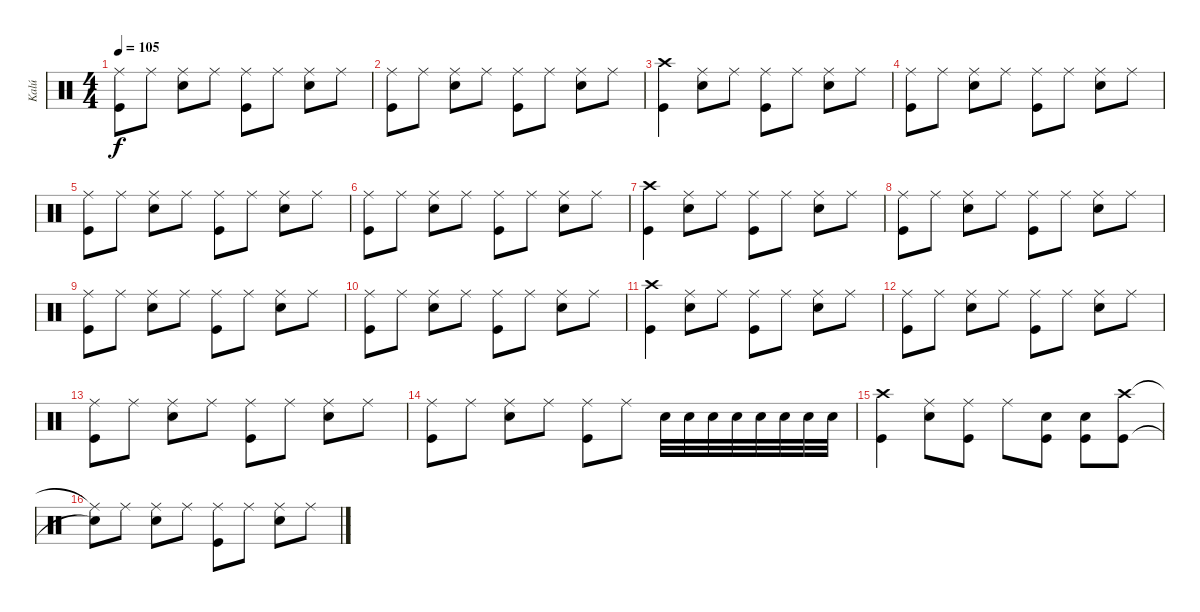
\track ("Kalú" "Kalú") {instrument percussion}
\staff {score}
\articulation defaults
\ts (4 4)
\tempo 105
\clef neutral
\ks c
("Ride (middle)" "Kick (hit)").8{dy f} "Ride (middle)".8 ("Ride (middle)" "Electric Snare (hit)").8 "Ride (middle)".8 ("Ride (middle)" "Kick (hit)").8 "Ride (middle)".8 ("Ride (middle)" "Electric Snare (hit)").8 "Ride (middle)".8 |
("Ride (middle)" "Kick (hit)").8 "Ride (middle)".8 ("Ride (middle)" "Electric Snare (hit)").8 "Ride (middle)".8 ("Ride (middle)" "Kick (hit)").8 "Ride (middle)".8 ("Ride (middle)" "Electric Snare (hit)").8 "Ride (middle)".8 |
("Crash high (hit)" "Kick (hit)").4 ("Ride (middle)" "Electric Snare (hit)").8 "Ride (middle)".8 ("Ride (middle)" "Kick (hit)").8 "Ride (middle)".8 ("Ride (middle)" "Electric Snare (hit)").8 "Ride (middle)".8 |
("Ride (middle)" "Kick (hit)").8 "Ride (middle)".8 ("Ride (middle)" "Electric Snare (hit)").8 "Ride (middle)".8 ("Ride (middle)" "Kick (hit)").8 "Ride (middle)".8 ("Ride (middle)" "Electric Snare (hit)").8 "Ride (middle)".8 |
("Ride (middle)" "Kick (hit)").8 "Ride (middle)".8 ("Ride (middle)" "Electric Snare (hit)").8 "Ride (middle)".8 ("Ride (middle)" "Kick (hit)").8 "Ride (middle)".8 ("Ride (middle)" "Electric Snare (hit)").8 "Ride (middle)".8 |
("Ride (middle)" "Kick (hit)").8 "Ride (middle)".8 ("Ride (middle)" "Electric Snare (hit)").8 "Ride (middle)".8 ("Ride (middle)" "Kick (hit)").8 "Ride (middle)".8 ("Ride (middle)" "Electric Snare (hit)").8 "Ride (middle)".8 |
("Crash high (hit)" "Kick (hit)").4 ("Ride (middle)" "Electric Snare (hit)").8 "Ride (middle)".8 ("Ride (middle)" "Kick (hit)").8 "Ride (middle)".8 ("Ride (middle)" "Electric Snare (hit)").8 "Ride (middle)".8 |
("Ride (middle)" "Kick (hit)").8 "Ride (middle)".8 ("Ride (middle)" "Electric Snare (hit)").8 "Ride (middle)".8 ("Ride (middle)" "Kick (hit)").8 "Ride (middle)".8 ("Ride (middle)" "Electric Snare (hit)").8 "Ride (middle)".8 |
("Ride (middle)" "Kick (hit)").8 "Ride (middle)".8 ("Ride (middle)" "Electric Snare (hit)").8 "Ride (middle)".8 ("Ride (middle)" "Kick (hit)").8 "Ride (middle)".8 ("Ride (middle)" "Electric Snare (hit)").8 "Ride (middle)".8 |
("Ride (middle)" "Kick (hit)").8 "Ride (middle)".8 ("Ride (middle)" "Electric Snare (hit)").8 "Ride (middle)".8 ("Ride (middle)" "Kick (hit)").8 "Ride (middle)".8 ("Ride (middle)" "Electric Snare (hit)").8 "Ride (middle)".8 |
("Crash high (hit)" "Kick (hit)").4 ("Ride (middle)" "Electric Snare (hit)").8 "Ride (middle)".8 ("Ride (middle)" "Kick (hit)").8 "Ride (middle)".8 ("Ride (middle)" "Electric Snare (hit)").8 "Ride (middle)".8 |
("Ride (middle)" "Kick (hit)").8 "Ride (middle)".8 ("Ride (middle)" "Electric Snare (hit)").8 "Ride (middle)".8 ("Ride (middle)" "Kick (hit)").8 "Ride (middle)".8 ("Ride (middle)" "Electric Snare (hit)").8 "Ride (middle)".8 |
("Ride (middle)" "Kick (hit)").8 "Ride (middle)".8 ("Ride (middle)" "Electric Snare (hit)").8 "Ride (middle)".8 ("Ride (middle)" "Kick (hit)").8 "Ride (middle)".8 ("Ride (middle)" "Electric Snare (hit)").8 "Ride (middle)".8 |
("Ride (middle)" "Kick (hit)").8 "Ride (middle)".8 ("Ride (middle)" "Electric Snare (hit)").8 "Ride (middle)".8 ("Ride (middle)" "Kick (hit)").8 "Ride (middle)".8 "Electric Snare (hit)".32 "Electric Snare (hit)".32 "Electric Snare (hit)".32 "Electric Snare (hit)".32 "Electric Snare (hit)".32 "Electric Snare (hit)".32 "Electric Snare (hit)".32 "Electric Snare (hit)".32 |
("Crash high (hit)" "Kick (hit)").4 ("Ride (middle)" "Electric Snare (hit)").8 ("Ride (middle)" "Kick (hit)").8 "Ride (middle)".8 ("Kick (hit)" "Electric Snare (hit)").8 ("Kick (hit)" "Electric Snare (hit)").8 ("Crash high (hit)" "Kick (hit)").8 |
("Ride (middle)"{t} "Snare (hit)"{t}).8 "Ride (middle)".8 ("Ride (middle)" "Electric Snare (hit)").8 "Ride (middle)".8 ("Ride (middle)" "Kick (hit)").8 "Ride (middle)".8 ("Ride (middle)" "Electric Snare (hit)").8 "Ride (middle)".8
